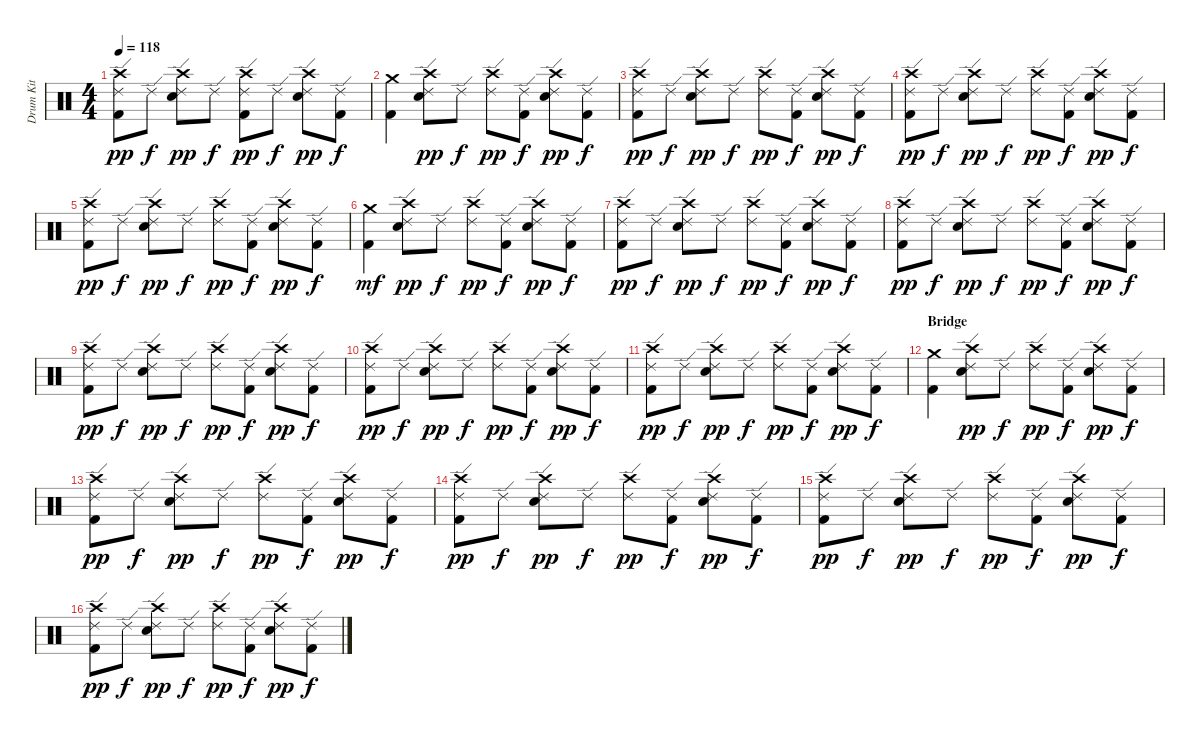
\track ("Drum Kit" "Drum Kit") {instrument percussion}
\staff {score}
\articulation defaults
\ts (4 4)
\tempo 118
\clef neutral
\ks c
("Crash high (hit)" "Ride (edge) 2" "Kick (hit) 2").8{dy pp} "Ride (edge) 2".8{dy f} ("Crash high (hit)" "Ride (edge) 2" "Electric Snare (hit)").8{dy pp} "Ride (edge) 2".8{dy f} ("Crash high (hit)" "Ride (edge) 2" "Kick (hit) 2").8{dy pp} "Ride (edge) 2".8{dy f} ("Crash high (hit)" "Ride (edge) 2" "Electric Snare (hit)").8{dy pp} ("Ride (edge) 2" "Kick (hit) 2").8{dy f} |
("Crash medium (hit)" "Kick (hit) 2").4 ("Crash high (hit)" "Ride (edge) 2" "Electric Snare (hit)").8{dy pp} "Ride (edge) 2".8{dy f} ("Crash high (hit)" "Ride (edge) 2").8{dy pp} ("Ride (edge) 2" "Kick (hit) 2").8{dy f} ("Crash high (hit)" "Ride (edge) 2" "Electric Snare (hit)").8{dy pp} ("Ride (edge) 2" "Kick (hit) 2").8{dy f} |
("Crash high (hit)" "Ride (edge) 2" "Kick (hit) 2").8{dy pp} "Ride (edge) 2".8{dy f} ("Crash high (hit)" "Ride (edge) 2" "Electric Snare (hit)").8{dy pp} "Ride (edge) 2".8{dy f} ("Crash high (hit)" "Ride (edge) 2").8{dy pp} ("Ride (edge) 2" "Kick (hit) 2").8{dy f} ("Crash high (hit)" "Ride (edge) 2" "Electric Snare (hit)").8{dy pp} ("Ride (edge) 2" "Kick (hit) 2").8{dy f} |
("Crash high (hit)" "Ride (edge) 2" "Kick (hit) 2").8{dy pp} "Ride (edge) 2".8{dy f} ("Crash high (hit)" "Ride (edge) 2" "Electric Snare (hit)").8{dy pp} "Ride (edge) 2".8{dy f} ("Crash high (hit)" "Ride (edge) 2").8{dy pp} ("Ride (edge) 2" "Kick (hit) 2").8{dy f} ("Crash high (hit)" "Ride (edge) 2" "Electric Snare (hit)").8{dy pp} ("Ride (edge) 2" "Kick (hit) 2").8{dy f} |
("Crash high (hit)" "Ride (edge) 2" "Kick (hit) 2").8{dy pp} "Ride (edge) 2".8{dy f} ("Crash high (hit)" "Ride (edge) 2" "Electric Snare (hit)").8{dy pp} "Ride (edge) 2".8{dy f} ("Crash high (hit)" "Ride (edge) 2").8{dy pp} ("Ride (edge) 2" "Kick (hit) 2").8{dy f} ("Crash high (hit)" "Ride (edge) 2" "Electric Snare (hit)").8{dy pp} ("Ride (edge) 2" "Kick (hit) 2").8{dy f} |
("Crash medium (hit)" "Kick (hit) 2").4{dy mf} ("Crash high (hit)" "Ride (edge) 2" "Electric Snare (hit)").8{dy pp} "Ride (edge) 2".8{dy f} ("Crash high (hit)" "Ride (edge) 2").8{dy pp} ("Ride (edge) 2" "Kick (hit) 2").8{dy f} ("Crash high (hit)" "Ride (edge) 2" "Electric Snare (hit)").8{dy pp} ("Ride (edge) 2" "Kick (hit) 2").8{dy f} |
("Crash high (hit)" "Ride (edge) 2" "Kick (hit) 2").8{dy pp} "Ride (edge) 2".8{dy f} ("Crash high (hit)" "Ride (edge) 2" "Electric Snare (hit)").8{dy pp} "Ride (edge) 2".8{dy f} ("Crash high (hit)" "Ride (edge) 2").8{dy pp} ("Ride (edge) 2" "Kick (hit) 2").8{dy f} ("Crash high (hit)" "Ride (edge) 2" "Electric Snare (hit)").8{dy pp} ("Ride (edge) 2" "Kick (hit) 2").8{dy f} |
("Crash high (hit)" "Ride (edge) 2" "Kick (hit) 2").8{dy pp} "Ride (edge) 2".8{dy f} ("Crash high (hit)" "Ride (edge) 2" "Electric Snare (hit)").8{dy pp} "Ride (edge) 2".8{dy f} ("Crash high (hit)" "Ride (edge) 2").8{dy pp} ("Ride (edge) 2" "Kick (hit) 2").8{dy f} ("Crash high (hit)" "Ride (edge) 2" "Electric Snare (hit)").8{dy pp} ("Ride (edge) 2" "Kick (hit) 2").8{dy f} |
("Crash high (hit)" "Ride (edge) 2" "Kick (hit) 2").8{dy pp} "Ride (edge) 2".8{dy f} ("Crash high (hit)" "Ride (edge) 2" "Electric Snare (hit)").8{dy pp} "Ride (edge) 2".8{dy f} ("Crash high (hit)" "Ride (edge) 2").8{dy pp} ("Ride (edge) 2" "Kick (hit) 2").8{dy f} ("Crash high (hit)" "Ride (edge) 2" "Electric Snare (hit)").8{dy pp} ("Ride (edge) 2" "Kick (hit) 2").8{dy f} |
("Crash high (hit)" "Ride (edge) 2" "Kick (hit) 2").8{dy pp} "Ride (edge) 2".8{dy f} ("Crash high (hit)" "Ride (edge) 2" "Electric Snare (hit)").8{dy pp} "Ride (edge) 2".8{dy f} ("Crash high (hit)" "Ride (edge) 2").8{dy pp} ("Ride (edge) 2" "Kick (hit) 2").8{dy f} ("Crash high (hit)" "Ride (edge) 2" "Electric Snare (hit)").8{dy pp} ("Ride (edge) 2" "Kick (hit) 2").8{dy f} |
("Crash high (hit)" "Ride (edge) 2" "Kick (hit) 2").8{dy pp} "Ride (edge) 2".8{dy f} ("Crash high (hit)" "Ride (edge) 2" "Electric Snare (hit)").8{dy pp} "Ride (edge) 2".8{dy f} ("Crash high (hit)" "Ride (edge) 2").8{dy pp} ("Ride (edge) 2" "Kick (hit) 2").8{dy f} ("Crash high (hit)" "Ride (edge) 2" "Electric Snare (hit)").8{dy pp} ("Ride (edge) 2" "Kick (hit) 2").8{dy f} |
\section ("" "Bridge")
("Crash medium (hit)" "Kick (hit) 2").4 ("Crash high (hit)" "Ride (edge) 2" "Electric Snare (hit)").8{dy pp} "Ride (edge) 2".8{dy f} ("Crash high (hit)" "Ride (edge) 2").8{dy pp} ("Ride (edge) 2" "Kick (hit) 2").8{dy f} ("Crash high (hit)" "Ride (edge) 2" "Electric Snare (hit)").8{dy pp} ("Ride (edge) 2" "Kick (hit) 2").8{dy f} |
("Crash high (hit)" "Ride (edge) 2" "Kick (hit) 2").8{dy pp} "Ride (edge) 2".8{dy f} ("Crash high (hit)" "Ride (edge) 2" "Electric Snare (hit)").8{dy pp} "Ride (edge) 2".8{dy f} ("Crash high (hit)" "Ride (edge) 2").8{dy pp} ("Ride (edge) 2" "Kick (hit) 2").8{dy f} ("Crash high (hit)" "Ride (edge) 2" "Electric Snare (hit)").8{dy pp} ("Ride (edge) 2" "Kick (hit) 2").8{dy f} |
("Crash high (hit)" "Ride (edge) 2" "Kick (hit) 2").8{dy pp} "Ride (edge) 2".8{dy f} ("Crash high (hit)" "Ride (edge) 2" "Electric Snare (hit)").8{dy pp} "Ride (edge) 2".8{dy f} ("Crash high (hit)" "Ride (edge) 2").8{dy pp} ("Ride (edge) 2" "Kick (hit) 2").8{dy f} ("Crash high (hit)" "Ride (edge) 2" "Electric Snare (hit)").8{dy pp} ("Ride (edge) 2" "Kick (hit) 2").8{dy f} |
("Crash high (hit)" "Ride (edge) 2" "Kick (hit) 2").8{dy pp} "Ride (edge) 2".8{dy f} ("Crash high (hit)" "Ride (edge) 2" "Electric Snare (hit)").8{dy pp} "Ride (edge) 2".8{dy f} ("Crash high (hit)" "Ride (edge) 2").8{dy pp} ("Ride (edge) 2" "Kick (hit) 2").8{dy f} ("Crash high (hit)" "Ride (edge) 2" "Electric Snare (hit)").8{dy pp} ("Ride (edge) 2" "Kick (hit) 2").8{dy f} |
("Crash high (hit)" "Ride (edge) 2" "Kick (hit) 2").8{dy pp} "Ride (edge) 2".8{dy f} ("Crash high (hit)" "Ride (edge) 2" "Electric Snare (hit)").8{dy pp} "Ride (edge) 2".8{dy f} ("Crash high (hit)" "Ride (edge) 2").8{dy pp} ("Ride (edge) 2" "Kick (hit) 2").8{dy f} ("Crash high (hit)" "Ride (edge) 2" "Electric Snare (hit)").8{dy pp} ("Ride (edge) 2" "Kick (hit) 2").8{dy f}
